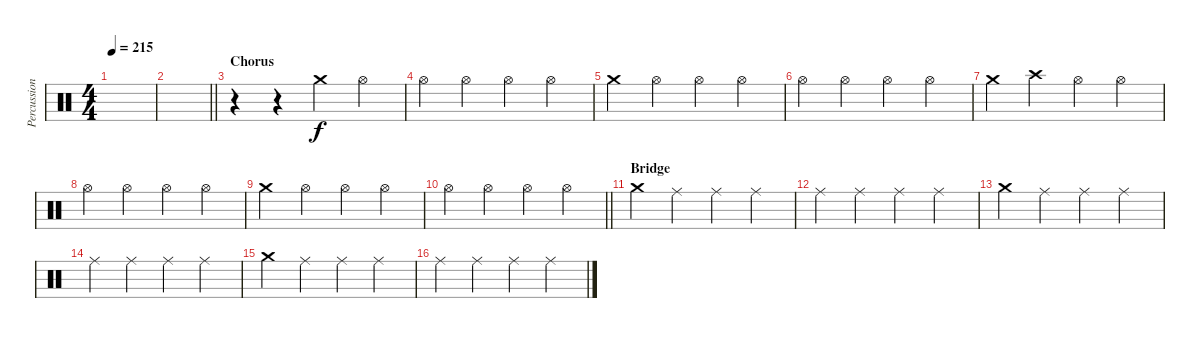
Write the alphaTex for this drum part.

\track ("Percussion" "Percussion") {instrument percussion}
\staff {score}
\articulation defaults
\ts (4 4)
\tempo 215
\clef neutral
\ks c
|
\barLineRight lightlight
|
\section ("" "Chorus")
r.4 r.4 "Crash medium (hit)".4 "Hi-Hat (open)".4 |
"Hi-Hat (open)".4 "Hi-Hat (open)".4 "Hi-Hat (open)".4 "Hi-Hat (open)".4 |
"Crash medium (hit)".4 "Hi-Hat (open)".4 "Hi-Hat (open)".4 "Hi-Hat (open)".4 |
"Hi-Hat (open)".4 "Hi-Hat (open)".4 "Hi-Hat (open)".4 "Hi-Hat (open)".4 |
"Crash medium (hit)".4 "Crash high (hit)".4 "Hi-Hat (open)".4 "Hi-Hat (open)".4 |
"Hi-Hat (open)".4 "Hi-Hat (open)".4 "Hi-Hat (open)".4 "Hi-Hat (open)".4 |
"Crash medium (hit)".4 "Hi-Hat (open)".4 "Hi-Hat (open)".4 "Hi-Hat (open)".4 |
\barLineRight lightlight "Hi-Hat (open)".4 "Hi-Hat (open)".4 "Hi-Hat (open)".4 "Hi-Hat (open)".4
|
\section ("" "Bridge")
"Crash medium (hit)".4 "Ride (middle)".4 "Ride (middle)".4 "Ride (middle)".4 |
"Ride (middle)".4 "Ride (middle)".4 "Ride (middle)".4 "Ride (middle)".4 |
"Crash medium (hit)".4 "Ride (middle)".4 "Ride (middle)".4 "Ride (middle)".4 |
"Ride (middle)".4 "Ride (middle)".4 "Ride (middle)".4 "Ride (middle)".4 |
"Crash medium (hit)".4 "Ride (middle)".4 "Ride (middle)".4 "Ride (middle)".4 |
"Ride (middle)".4 "Ride (middle)".4 "Ride (middle)".4 "Ride (middle)".4
